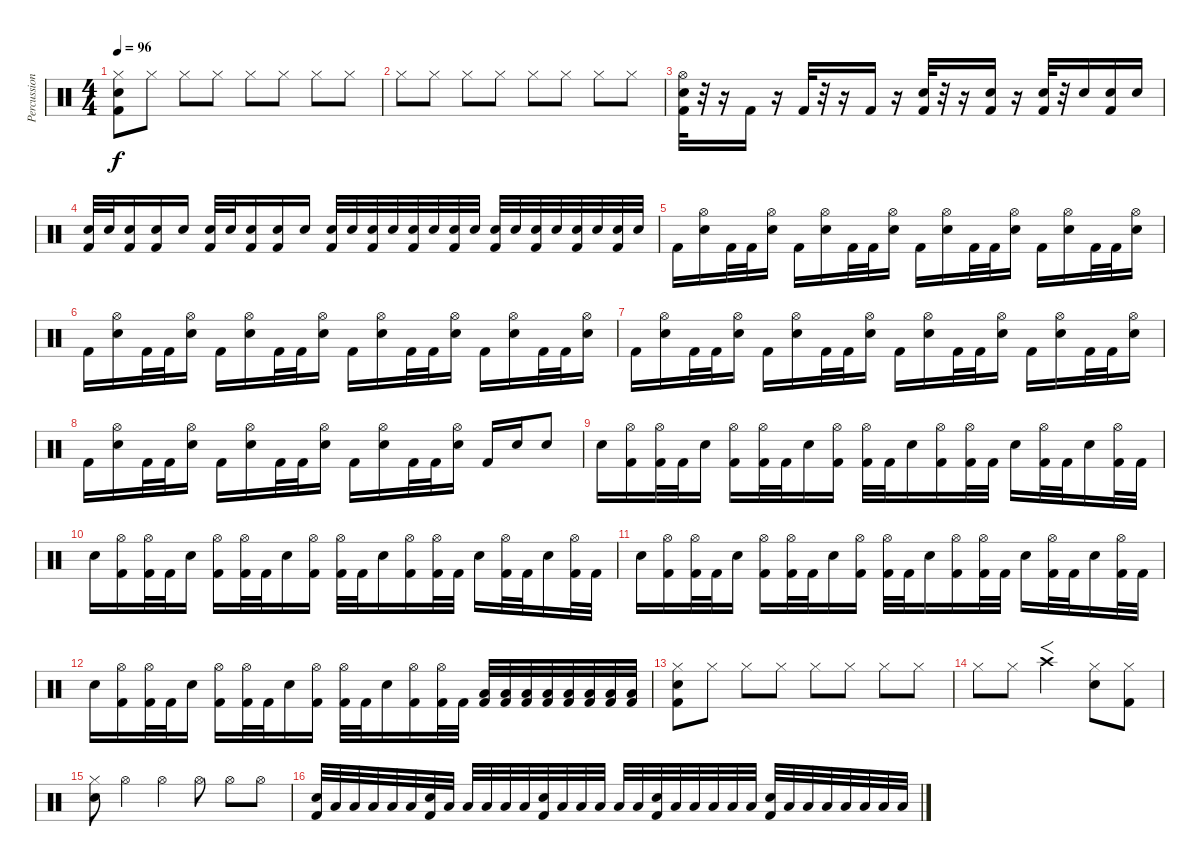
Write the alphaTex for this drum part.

\track ("Percussion" "Percussion") {instrument percussion}
\staff {score}
\articulation defaults
\ts (4 4)
\tempo 96
\clef neutral
\ks c
("Kick (hit) 2" "Hi-Hat (closed)" "Electric Snare (hit)").8{dy f} "Hi-Hat (closed)".8 "Hi-Hat (closed)".8 "Hi-Hat (closed)".8 "Hi-Hat (closed)".8 "Hi-Hat (closed)".8 "Hi-Hat (closed)".8 "Hi-Hat (closed)".8 |
"Hi-Hat (closed)".8 "Hi-Hat (closed)".8 "Hi-Hat (closed)".8 "Hi-Hat (closed)".8 "Hi-Hat (closed)".8 "Hi-Hat (closed)".8 "Hi-Hat (closed)".8 "Hi-Hat (closed)".8 |
("Kick (hit) 2" "Hi-Hat (open)" "Electric Snare (hit)").32 r.32 r.16 "Kick (hit) 2".16 r.16 "Kick (hit) 2".32 r.32 r.16 "Kick (hit) 2".16 r.16 ("Kick (hit) 2" "Electric Snare (hit)").32 r.32 r.16 ("Kick (hit) 2" "Electric Snare (hit)").16 r.16 ("Kick (hit) 2" "Electric Snare (hit)").32 r.32 "Electric Snare (hit)".16{volume 7} ("Kick (hit) 2" "Electric Snare (hit)").16{volume 8} "Electric Snare (hit)".16{volume 9} |
("Kick (hit) 2" "Electric Snare (hit)").32{volume 10} "Electric Snare (hit)".32 ("Kick (hit) 2" "Electric Snare (hit)").16 ("Kick (hit) 2" "Electric Snare (hit)").16{volume 13} "Electric Snare (hit)".16 ("Kick (hit) 2" "Electric Snare (hit)").32{volume 14} "Electric Snare (hit)".32 ("Kick (hit) 2" "Electric Snare (hit)").16 ("Kick (hit) 2" "Electric Snare (hit)").16{volume 15} "Electric Snare (hit)".16 ("Kick (hit) 2" "Electric Snare (hit)").32{volume 15} "Electric Snare (hit)".32 ("Kick (hit) 2" "Electric Snare (hit)").32 "Electric Snare (hit)".32 ("Kick (hit) 2" "Electric Snare (hit)").32 "Electric Snare (hit)".32 ("Kick (hit) 2" "Electric Snare (hit)").32 "Electric Snare (hit)".32 ("Kick (hit) 2" "Electric Snare (hit)").32 "Electric Snare (hit)".32 ("Kick (hit) 2" "Electric Snare (hit)").32 "Electric Snare (hit)".32 ("Kick (hit) 2" "Electric Snare (hit)").32 "Electric Snare (hit)".32 ("Kick (hit) 2" "Electric Snare (hit)").32 "Electric Snare (hit)".32 |
"Kick (hit) 2".16 ("Electric Snare (hit)" "Hi-Hat (open)").16 "Kick (hit) 2".32 "Kick (hit) 2".32 ("Electric Snare (hit)" "Hi-Hat (open)").16 "Kick (hit) 2".16 ("Electric Snare (hit)" "Hi-Hat (open)").16 "Kick (hit) 2".32 "Kick (hit) 2".32 ("Electric Snare (hit)" "Hi-Hat (open)").16 "Kick (hit) 2".16 ("Electric Snare (hit)" "Hi-Hat (open)").16 "Kick (hit) 2".32 "Kick (hit) 2".32 ("Electric Snare (hit)" "Hi-Hat (open)").16 "Kick (hit) 2".16 ("Electric Snare (hit)" "Hi-Hat (open)").16 "Kick (hit) 2".32 "Kick (hit) 2".32 ("Electric Snare (hit)" "Hi-Hat (open)").16 |
"Kick (hit) 2".16 ("Electric Snare (hit)" "Hi-Hat (open)").16 "Kick (hit) 2".32 "Kick (hit) 2".32 ("Electric Snare (hit)" "Hi-Hat (open)").16 "Kick (hit) 2".16 ("Electric Snare (hit)" "Hi-Hat (open)").16 "Kick (hit) 2".32 "Kick (hit) 2".32 ("Electric Snare (hit)" "Hi-Hat (open)").16 "Kick (hit) 2".16 ("Electric Snare (hit)" "Hi-Hat (open)").16 "Kick (hit) 2".32 "Kick (hit) 2".32 ("Electric Snare (hit)" "Hi-Hat (open)").16 "Kick (hit) 2".16 ("Electric Snare (hit)" "Hi-Hat (open)").16 "Kick (hit) 2".32 "Kick (hit) 2".32 ("Electric Snare (hit)" "Hi-Hat (open)").16 |
"Kick (hit) 2".16 ("Electric Snare (hit)" "Hi-Hat (open)").16 "Kick (hit) 2".32 "Kick (hit) 2".32 ("Electric Snare (hit)" "Hi-Hat (open)").16 "Kick (hit) 2".16 ("Electric Snare (hit)" "Hi-Hat (open)").16 "Kick (hit) 2".32 "Kick (hit) 2".32 ("Electric Snare (hit)" "Hi-Hat (open)").16 "Kick (hit) 2".16 ("Electric Snare (hit)" "Hi-Hat (open)").16 "Kick (hit) 2".32 "Kick (hit) 2".32 ("Electric Snare (hit)" "Hi-Hat (open)").16 "Kick (hit) 2".16 ("Electric Snare (hit)" "Hi-Hat (open)").16 "Kick (hit) 2".32 "Kick (hit) 2".32 ("Electric Snare (hit)" "Hi-Hat (open)").16 |
"Kick (hit) 2".16 ("Electric Snare (hit)" "Hi-Hat (open)").16 "Kick (hit) 2".32 "Kick (hit) 2".32 ("Electric Snare (hit)" "Hi-Hat (open)").16 "Kick (hit) 2".16 ("Electric Snare (hit)" "Hi-Hat (open)").16 "Kick (hit) 2".32 "Kick (hit) 2".32 ("Electric Snare (hit)" "Hi-Hat (open)").16 "Kick (hit) 2".16 ("Electric Snare (hit)" "Hi-Hat (open)").16 "Kick (hit) 2".32 "Kick (hit) 2".32 ("Electric Snare (hit)" "Hi-Hat (open)").16 "Kick (hit) 2".16 "Electric Snare (hit)".16 "Electric Snare (hit)".8 |
"Electric Snare (hit)".16 ("Kick (hit) 2" "Hi-Hat (open)").16 ("Kick (hit) 2" "Hi-Hat (open)").32 "Kick (hit) 2".32 "Electric Snare (hit)".16 ("Kick (hit) 2" "Hi-Hat (open)").16 ("Kick (hit) 2" "Hi-Hat (open)").32 "Kick (hit) 2".32 "Electric Snare (hit)".16 ("Kick (hit) 2" "Hi-Hat (open)").16 ("Kick (hit) 2" "Hi-Hat (open)").32 "Kick (hit) 2".32 "Electric Snare (hit)".16 ("Kick (hit) 2" "Hi-Hat (open)").16 ("Kick (hit) 2" "Hi-Hat (open)").32 "Kick (hit) 2".32 "Electric Snare (hit)".16 ("Kick (hit) 2" "Hi-Hat (open)").32 "Kick (hit) 2".32 "Electric Snare (hit)".16 ("Kick (hit) 2" "Hi-Hat (open)").32 "Kick (hit) 2".32 |
"Electric Snare (hit)".16 ("Kick (hit) 2" "Hi-Hat (open)").16 ("Kick (hit) 2" "Hi-Hat (open)").32 "Kick (hit) 2".32 "Electric Snare (hit)".16 ("Kick (hit) 2" "Hi-Hat (open)").16 ("Kick (hit) 2" "Hi-Hat (open)").32 "Kick (hit) 2".32 "Electric Snare (hit)".16 ("Kick (hit) 2" "Hi-Hat (open)").16 ("Kick (hit) 2" "Hi-Hat (open)").32 "Kick (hit) 2".32 "Electric Snare (hit)".16 ("Kick (hit) 2" "Hi-Hat (open)").16 ("Kick (hit) 2" "Hi-Hat (open)").32 "Kick (hit) 2".32 "Electric Snare (hit)".16 ("Kick (hit) 2" "Hi-Hat (open)").32 "Kick (hit) 2".32 "Electric Snare (hit)".16 ("Kick (hit) 2" "Hi-Hat (open)").32 "Kick (hit) 2".32 |
"Electric Snare (hit)".16 ("Kick (hit) 2" "Hi-Hat (open)").16 ("Kick (hit) 2" "Hi-Hat (open)").32 "Kick (hit) 2".32 "Electric Snare (hit)".16 ("Kick (hit) 2" "Hi-Hat (open)").16 ("Kick (hit) 2" "Hi-Hat (open)").32 "Kick (hit) 2".32 "Electric Snare (hit)".16 ("Kick (hit) 2" "Hi-Hat (open)").16 ("Kick (hit) 2" "Hi-Hat (open)").32 "Kick (hit) 2".32 "Electric Snare (hit)".16 ("Kick (hit) 2" "Hi-Hat (open)").16 ("Kick (hit) 2" "Hi-Hat (open)").32 "Kick (hit) 2".32 "Electric Snare (hit)".16 ("Kick (hit) 2" "Hi-Hat (open)").32 "Kick (hit) 2".32 "Electric Snare (hit)".16 ("Kick (hit) 2" "Hi-Hat (open)").32 "Kick (hit) 2".32 |
"Electric Snare (hit)".16 ("Kick (hit) 2" "Hi-Hat (open)").16 ("Kick (hit) 2" "Hi-Hat (open)").32 "Kick (hit) 2".32 "Electric Snare (hit)".16 ("Kick (hit) 2" "Hi-Hat (open)").16 ("Kick (hit) 2" "Hi-Hat (open)").32 "Kick (hit) 2".32 "Electric Snare (hit)".16 ("Kick (hit) 2" "Hi-Hat (open)").16 ("Kick (hit) 2" "Hi-Hat (open)").32 "Kick (hit) 2".32 "Electric Snare (hit)".16 ("Kick (hit) 2" "Hi-Hat (open)").16 ("Kick (hit) 2" "Hi-Hat (open)").32 "Kick (hit) 2".32 ("Kick (hit) 2" "Low Tom (hit)").32 ("Kick (hit) 2" "Low Tom (hit)").32 ("Kick (hit) 2" "Low Tom (hit)").32 ("Kick (hit) 2" "Low Tom (hit)").32 ("Kick (hit) 2" "Low Tom (hit)").32 ("Kick (hit) 2" "Low Tom (hit)").32 ("Kick (hit) 2" "Low Tom (hit)").32 ("Kick (hit) 2" "Low Tom (hit)").32 |
("Kick (hit) 2" "Hi-Hat (closed)" "Snare (hit) 2").8 "Hi-Hat (closed)".8 "Hi-Hat (closed)".8 "Hi-Hat (closed)".8 "Hi-Hat (closed)".8 "Hi-Hat (closed)".8 "Hi-Hat (closed)".8 "Hi-Hat (closed)".8 |
"Hi-Hat (closed)".8 "Hi-Hat (closed)".8 "Crash high (hit)".2{f} ("Electric Snare (hit)" "Hi-Hat (closed)").8 ("Kick (hit) 2" "Hi-Hat (closed)").8 |
("Electric Snare (hit)" "Hi-Hat (closed)").8 "Hi-Hat (open)".4 "Hi-Hat (open)".4 "Hi-Hat (open)".8 "Hi-Hat (open)".8 "Hi-Hat (open)".8 |
("Kick (hit) 2" "Electric Snare (hit)").32 "Low Tom (hit)".32 "Low Tom (hit)".32 "Low Tom (hit)".32 "Low Tom (hit)".32 "Low Tom (hit)".32 ("Kick (hit) 2" "Electric Snare (hit)").32 "Low Tom (hit)".32 "Low Tom (hit)".32 "Low Tom (hit)".32 "Low Tom (hit)".32 "Low Tom (hit)".32 ("Kick (hit) 2" "Electric Snare (hit)").32 "Low Tom (hit)".32 "Low Tom (hit)".32 "Low Tom (hit)".32 "Low Tom (hit)".32 "Low Tom (hit)".32 ("Kick (hit) 2" "Electric Snare (hit)").32 "Low Tom (hit)".32 "Low Tom (hit)".32 "Low Tom (hit)".32 "Low Tom (hit)".32 "Low Tom (hit)".32 ("Kick (hit) 2" "Electric Snare (hit)").32 "Low Tom (hit)".32 "Low Tom (hit)".32 "Low Tom (hit)".32 "Low Tom (hit)".32 "Low Tom (hit)".32 "Low Tom (hit)".32 "Low Tom (hit)".32
